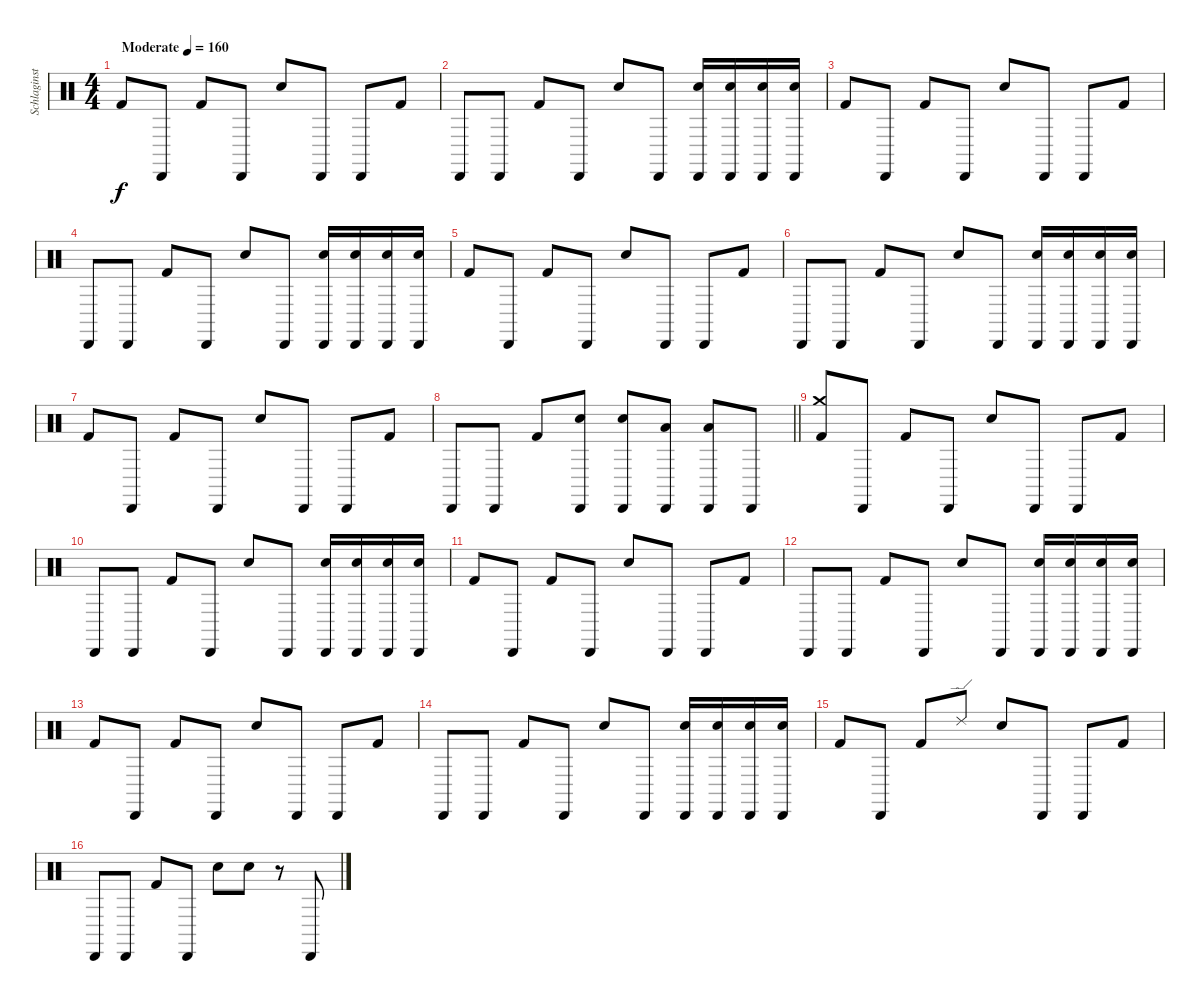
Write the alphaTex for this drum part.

\track ("Schlaginstrumente - Auswahl" "Schlaginst") {instrument percussion}
\staff {score}
\articulation defaults
\ts (4 4)
\tempo (160 "Moderate")
\clef neutral
\ks c "Kick (hit) 2".8{dy f} "Cabasa (hit)".8 "Kick (hit) 2".8 "Cabasa (hit)".8 "Snare (hit) 2".8 "Cabasa (hit)".8 "Cabasa (hit)".8 "Kick (hit) 2".8
|
"Cabasa (hit)".8 "Cabasa (hit)".8 "Kick (hit) 2".8 "Cabasa (hit)".8 "Snare (hit) 2".8 "Cabasa (hit)".8 ("Cabasa (hit)" "Snare (hit) 2").16 ("Cabasa (hit)" "Snare (hit) 2").16 ("Cabasa (hit)" "Snare (hit) 2").16 ("Cabasa (hit)" "Snare (hit) 2").16 |
"Kick (hit) 2".8 "Cabasa (hit)".8 "Kick (hit) 2".8 "Cabasa (hit)".8 "Snare (hit) 2".8 "Cabasa (hit)".8 "Cabasa (hit)".8 "Kick (hit) 2".8 |
"Cabasa (hit)".8 "Cabasa (hit)".8 "Kick (hit) 2".8 "Cabasa (hit)".8 "Snare (hit) 2".8 "Cabasa (hit)".8 ("Cabasa (hit)" "Snare (hit) 2").16 ("Cabasa (hit)" "Snare (hit) 2").16 ("Cabasa (hit)" "Snare (hit) 2").16 ("Cabasa (hit)" "Snare (hit) 2").16 |
"Kick (hit) 2".8 "Cabasa (hit)".8 "Kick (hit) 2".8 "Cabasa (hit)".8 "Snare (hit) 2".8 "Cabasa (hit)".8 "Cabasa (hit)".8 "Kick (hit) 2".8 |
"Cabasa (hit)".8 "Cabasa (hit)".8 "Kick (hit) 2".8 "Cabasa (hit)".8 "Snare (hit) 2".8 "Cabasa (hit)".8 ("Cabasa (hit)" "Snare (hit) 2").16 ("Cabasa (hit)" "Snare (hit) 2").16 ("Cabasa (hit)" "Snare (hit) 2").16 ("Cabasa (hit)" "Snare (hit) 2").16 |
"Kick (hit) 2".8 "Cabasa (hit)".8 "Kick (hit) 2".8 "Cabasa (hit)".8 "Snare (hit) 2".8 "Cabasa (hit)".8 "Cabasa (hit)".8 "Kick (hit) 2".8 |
\barLineRight lightlight "Cabasa (hit)".8 "Cabasa (hit)".8 "Kick (hit) 2".8
("Cabasa (hit)" "Snare (hit) 2").8 ("Cabasa (hit)" "Snare (hit) 2").8 ("Cabasa (hit)" "Low Tom (hit)").8 ("Cabasa (hit)" "Low Tom (hit)").8 "Cabasa (hit)".8 |
("Crash medium (hit)" "Kick (hit) 2").8 "Cabasa (hit)".8 "Kick (hit) 2".8 "Cabasa (hit)".8 "Snare (hit) 2".8 "Cabasa (hit)".8 "Cabasa (hit)".8 "Kick (hit) 2".8 |
"Cabasa (hit)".8 "Cabasa (hit)".8 "Kick (hit) 2".8 "Cabasa (hit)".8 "Snare (hit) 2".8 "Cabasa (hit)".8 ("Cabasa (hit)" "Snare (hit) 2").16 ("Cabasa (hit)" "Snare (hit) 2").16 ("Cabasa (hit)" "Snare (hit) 2").16 ("Cabasa (hit)" "Snare (hit) 2").16 |
"Kick (hit) 2".8 "Cabasa (hit)".8 "Kick (hit) 2".8 "Cabasa (hit)".8 "Snare (hit) 2".8 "Cabasa (hit)".8 "Cabasa (hit)".8 "Kick (hit) 2".8 |
"Cabasa (hit)".8 "Cabasa (hit)".8 "Kick (hit) 2".8 "Cabasa (hit)".8 "Snare (hit) 2".8 "Cabasa (hit)".8 ("Cabasa (hit)" "Snare (hit) 2").16 ("Cabasa (hit)" "Snare (hit) 2").16 ("Cabasa (hit)" "Snare (hit) 2").16 ("Cabasa (hit)" "Snare (hit) 2").16 |
"Kick (hit) 2".8 "Cabasa (hit)".8 "Kick (hit) 2".8 "Cabasa (hit)".8 "Snare (hit) 2".8 "Cabasa (hit)".8 "Cabasa (hit)".8 "Kick (hit) 2".8 |
"Cabasa (hit)".8 "Cabasa (hit)".8 "Kick (hit) 2".8 "Cabasa (hit)".8 "Snare (hit) 2".8 "Cabasa (hit)".8 ("Cabasa (hit)" "Snare (hit) 2").16 ("Cabasa (hit)" "Snare (hit) 2").16 ("Cabasa (hit)" "Snare (hit) 2").16 ("Cabasa (hit)" "Snare (hit) 2").16 |
"Kick (hit) 2".8 "Cabasa (hit)".8 "Kick (hit) 2".8 "Ride (edge) 2".8 "Snare (hit) 2".8 "Cabasa (hit)".8 "Cabasa (hit)".8 "Kick (hit) 2".8 |
"Cabasa (hit)".8 "Cabasa (hit)".8 "Kick (hit) 2".8 "Cabasa (hit)".8 "Snare (hit) 2".8 "Snare (hit) 2".8 r.8 "Cabasa (hit)".8
